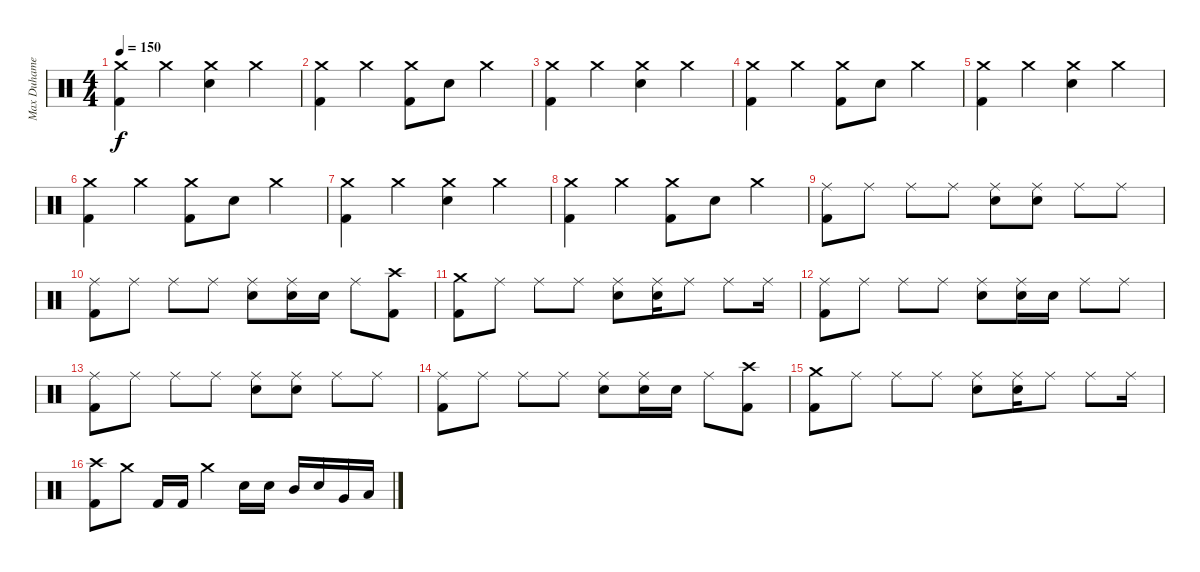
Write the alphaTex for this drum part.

\track ("Max Duhamel (Drums)" "Max Duhame") {instrument percussion}
\staff {score}
\articulation defaults
\ts (4 4)
\tempo 150
\clef neutral
\ks c
("Crash medium (hit)" "Kick (hit) 2").4{dy f} "Crash medium (hit)".4 ("Crash medium (hit)" "Electric Snare (hit)").4 "Crash medium (hit)".4 |
("Crash medium (hit)" "Kick (hit) 2").4 "Crash medium (hit)".4 ("Crash medium (hit)" "Kick (hit) 2").8 "Electric Snare (hit)".8 "Crash medium (hit)".4 |
("Crash medium (hit)" "Kick (hit) 2").4 "Crash medium (hit)".4 ("Crash medium (hit)" "Electric Snare (hit)").4 "Crash medium (hit)".4 |
("Crash medium (hit)" "Kick (hit) 2").4 "Crash medium (hit)".4 ("Crash medium (hit)" "Kick (hit) 2").8 "Electric Snare (hit)".8 "Crash medium (hit)".4 |
("Crash medium (hit)" "Kick (hit) 2").4 "Crash medium (hit)".4 ("Crash medium (hit)" "Electric Snare (hit)").4 "Crash medium (hit)".4 |
("Crash medium (hit)" "Kick (hit) 2").4 "Crash medium (hit)".4 ("Crash medium (hit)" "Kick (hit) 2").8 "Electric Snare (hit)".8 "Crash medium (hit)".4 |
("Crash medium (hit)" "Kick (hit) 2").4 "Crash medium (hit)".4 ("Crash medium (hit)" "Electric Snare (hit)").4 "Crash medium (hit)".4 |
("Crash medium (hit)" "Kick (hit) 2").4 "Crash medium (hit)".4 ("Crash medium (hit)" "Kick (hit) 2").8 "Electric Snare (hit)".8 "Crash medium (hit)".4 |
("Ride (middle)" "Kick (hit) 2").8 "Ride (middle)".8 "Ride (middle)".8 "Ride (middle)".8 ("Ride (middle)" "Electric Snare (hit)").8 ("Ride (middle)" "Electric Snare (hit)").8 "Ride (middle)".8 "Ride (middle)".8 |
("Ride (middle)" "Kick (hit) 2").8 "Ride (middle)".8 "Ride (middle)".8 "Ride (middle)".8 ("Ride (middle)" "Electric Snare (hit)").8 ("Ride (middle)" "Electric Snare (hit)").16 "Electric Snare (hit)".16 "Ride (middle)".8 ("Crash high (hit)" "Kick (hit) 2").8 |
("Crash medium (hit)" "Kick (hit) 2").8 "Ride (middle)".8 "Ride (middle)".8 "Ride (middle)".8 ("Ride (middle)" "Electric Snare (hit)").8 ("Ride (middle)" "Electric Snare (hit)").16 "Ride (middle)".8 "Ride (middle)".8 "Ride (middle)".16 |
("Ride (middle)" "Kick (hit) 2").8 "Ride (middle)".8 "Ride (middle)".8 "Ride (middle)".8 ("Ride (middle)" "Electric Snare (hit)").8 ("Ride (middle)" "Electric Snare (hit)").16 "Electric Snare (hit)".16 "Ride (middle)".8 "Ride (middle)".8 |
("Ride (middle)" "Kick (hit) 2").8 "Ride (middle)".8 "Ride (middle)".8 "Ride (middle)".8 ("Ride (middle)" "Electric Snare (hit)").8 ("Ride (middle)" "Electric Snare (hit)").8 "Ride (middle)".8 "Ride (middle)".8 |
("Ride (middle)" "Kick (hit) 2").8 "Ride (middle)".8 "Ride (middle)".8 "Ride (middle)".8 ("Ride (middle)" "Electric Snare (hit)").8 ("Ride (middle)" "Electric Snare (hit)").16 "Electric Snare (hit)".16 "Ride (middle)".8 ("Crash high (hit)" "Kick (hit) 2").8 |
("Crash medium (hit)" "Kick (hit) 2").8 "Ride (middle)".8 "Ride (middle)".8 "Ride (middle)".8 ("Ride (middle)" "Electric Snare (hit)").8 ("Ride (middle)" "Electric Snare (hit)").16 "Ride (middle)".8 "Ride (middle)".8 "Ride (middle)".16 |
("Crash high (hit)" "Kick (hit) 2").8 "Crash medium (hit)".8 "Kick (hit) 2".16 "Kick (hit) 2".16 "Crash medium (hit)".4 "Electric Snare (hit)".16 "Electric Snare (hit)".16 "Mid Tom (hit)".16 "Electric Snare (hit)".16 "Very Low Tom (hit)".16 "Low Floor Tom (hit)".16
